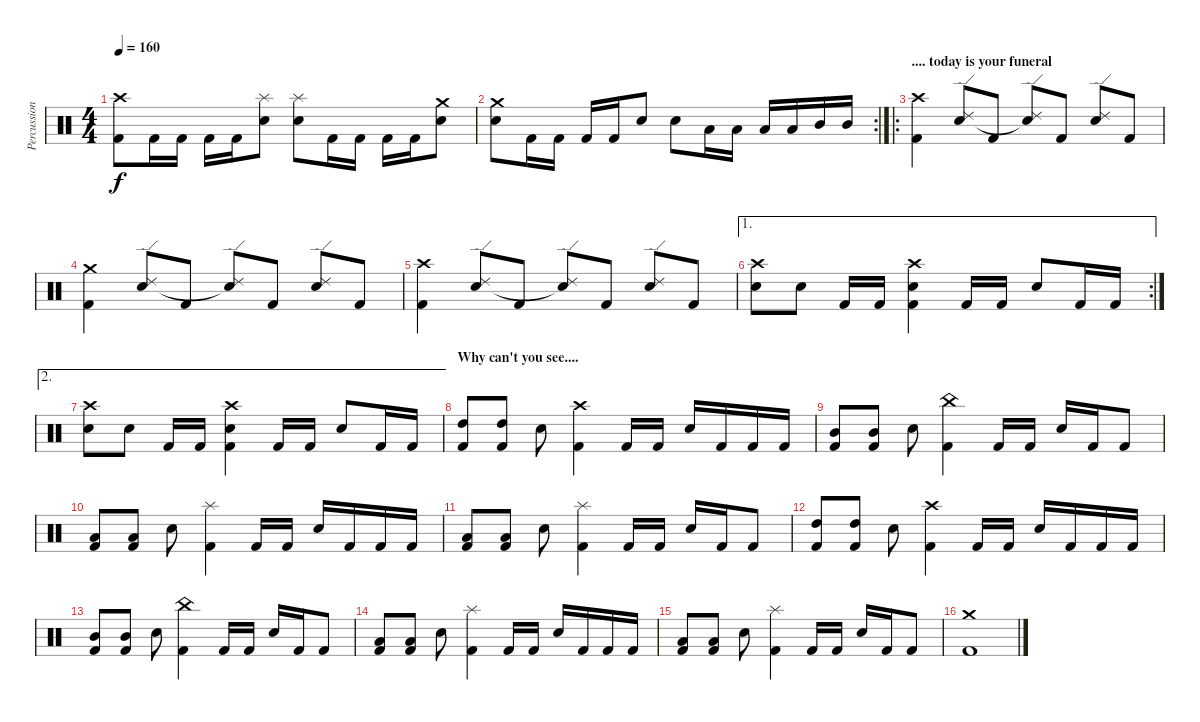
\track ("Percussion" "Percussion") {instrument percussion}
\staff {score}
\articulation defaults
\ts (4 4)
\tempo 160
\clef neutral
\ks c
("Crash high (hit)" "Kick (hit) 2").8{dy f} "Kick (hit) 2".16 "Kick (hit) 2".16 "Kick (hit) 2".16 "Kick (hit) 2".16 ("Splash (hit)" "Snare (hit) 2").8 ("Splash (hit)" "Snare (hit) 2").8 "Kick (hit) 2".16 "Kick (hit) 2".16 "Kick (hit) 2".16 "Kick (hit) 2".16 ("Crash medium (hit)" "Snare (hit) 2").8 |
\rc 2
("Crash medium (hit)" "Snare (hit) 2").8 "Kick (hit) 2".16 "Kick (hit) 2".16 "Kick (hit) 2".16 "Kick (hit) 2".16 "Snare (hit) 2".8 "Snare (hit) 2".8 "Low Tom (hit)".16 "Low Tom (hit)".16 "Low Tom (hit)".16 "Low Tom (hit)".16 "Mid Tom (hit)".16 "Mid Tom (hit)".16 |
\ro
\section ("" ".... today is your funeral")
("Crash high (hit)" "Kick (hit) 2").4 ("Ride (edge) 2" "Snare (hit) 2").8 "Kick (hit) 2".8 ("Ride (edge) 2" "Snare (hit)"{t}).8 "Kick (hit) 2".8 ("Ride (edge) 2" "Snare (hit) 2").8 "Kick (hit) 2".8 |
("Crash medium (hit)" "Kick (hit) 2").4 ("Ride (edge) 2" "Snare (hit) 2").8 "Kick (hit) 2".8 ("Ride (edge) 2" "Snare (hit)"{t}).8 "Kick (hit) 2".8 ("Ride (edge) 2" "Snare (hit) 2").8 "Kick (hit) 2".8 |
("Crash high (hit)" "Kick (hit) 2").4 ("Ride (edge) 2" "Snare (hit) 2").8 "Kick (hit) 2".8 ("Ride (edge) 2" "Snare (hit)"{t}).8 "Kick (hit) 2".8 ("Ride (edge) 2" "Snare (hit) 2").8 "Kick (hit) 2".8 |
\ae 1
\rc 2
("Crash high (hit)" "Snare (hit) 2").8 "Snare (hit) 2".8 "Kick (hit) 2".16 "Kick (hit) 2".16 ("Crash high (hit)" "Snare (hit) 2" "Kick (hit) 2").4 "Kick (hit) 2".16 "Kick (hit) 2".16 "Snare (hit) 2".8 "Kick (hit) 2".16 "Kick (hit) 2".16 |
\ae 2
("Crash high (hit)" "Snare (hit) 2").8 "Snare (hit) 2".8 "Kick (hit) 2".16 "Kick (hit) 2".16 ("Crash high (hit)" "Snare (hit) 2" "Kick (hit) 2").4 "Kick (hit) 2".16 "Kick (hit) 2".16 "Snare (hit) 2".8 "Kick (hit) 2".16 "Kick (hit) 2".16 |
\section ("" "Why can't you see....")
("High Tom (hit)" "Kick (hit) 2").8 ("High Tom (hit)" "Kick (hit) 2").8 "Snare (hit) 2".8 ("Crash high (hit)" "Kick (hit) 2").4 "Kick (hit) 2".16 "Kick (hit) 2".16 "Snare (hit) 2".16 "Kick (hit) 2".16 "Kick (hit) 2".16 "Kick (hit) 2".16 |
("Mid Tom (hit)" "Kick (hit) 2").8 ("Mid Tom (hit)" "Kick (hit) 2").8 "Snare (hit) 2".8 ("China (hit)" "Kick (hit) 2").4 "Kick (hit) 2".16 "Kick (hit) 2".16 "Snare (hit) 2".16 "Kick (hit) 2".16 "Kick (hit) 2".8 |
("Low Tom (hit)" "Kick (hit) 2").8 ("Low Tom (hit)" "Kick (hit) 2").8 "Snare (hit) 2".8 ("Splash (hit)" "Kick (hit) 2").4 "Kick (hit) 2".16 "Kick (hit) 2".16 "Snare (hit) 2".16 "Kick (hit) 2".16 "Kick (hit) 2".16 "Kick (hit) 2".16 |
("Low Tom (hit)" "Kick (hit) 2").8 ("Low Tom (hit)" "Kick (hit) 2").8 "Snare (hit) 2".8 ("Splash (hit)" "Kick (hit) 2").4 "Kick (hit) 2".16 "Kick (hit) 2".16 "Snare (hit) 2".16 "Kick (hit) 2".16 "Kick (hit) 2".8 |
("High Tom (hit)" "Kick (hit) 2").8 ("High Tom (hit)" "Kick (hit) 2").8 "Snare (hit) 2".8 ("Crash high (hit)" "Kick (hit) 2").4 "Kick (hit) 2".16 "Kick (hit) 2".16 "Snare (hit) 2".16 "Kick (hit) 2".16 "Kick (hit) 2".16 "Kick (hit) 2".16 |
("Mid Tom (hit)" "Kick (hit) 2").8 ("Mid Tom (hit)" "Kick (hit) 2").8 "Snare (hit) 2".8 ("China (hit)" "Kick (hit) 2").4 "Kick (hit) 2".16 "Kick (hit) 2".16 "Snare (hit) 2".16 "Kick (hit) 2".16 "Kick (hit) 2".8 |
("Low Tom (hit)" "Kick (hit) 2").8 ("Low Tom (hit)" "Kick (hit) 2").8 "Snare (hit) 2".8 ("Splash (hit)" "Kick (hit) 2").4 "Kick (hit) 2".16 "Kick (hit) 2".16 "Snare (hit) 2".16 "Kick (hit) 2".16 "Kick (hit) 2".16 "Kick (hit) 2".16 |
("Low Tom (hit)" "Kick (hit) 2").8 ("Low Tom (hit)" "Kick (hit) 2").8 "Snare (hit) 2".8 ("Splash (hit)" "Kick (hit) 2").4 "Kick (hit) 2".16 "Kick (hit) 2".16 "Snare (hit) 2".16 "Kick (hit) 2".16 "Kick (hit) 2".8 |
("Crash medium (hit)" "Kick (hit) 2").1
